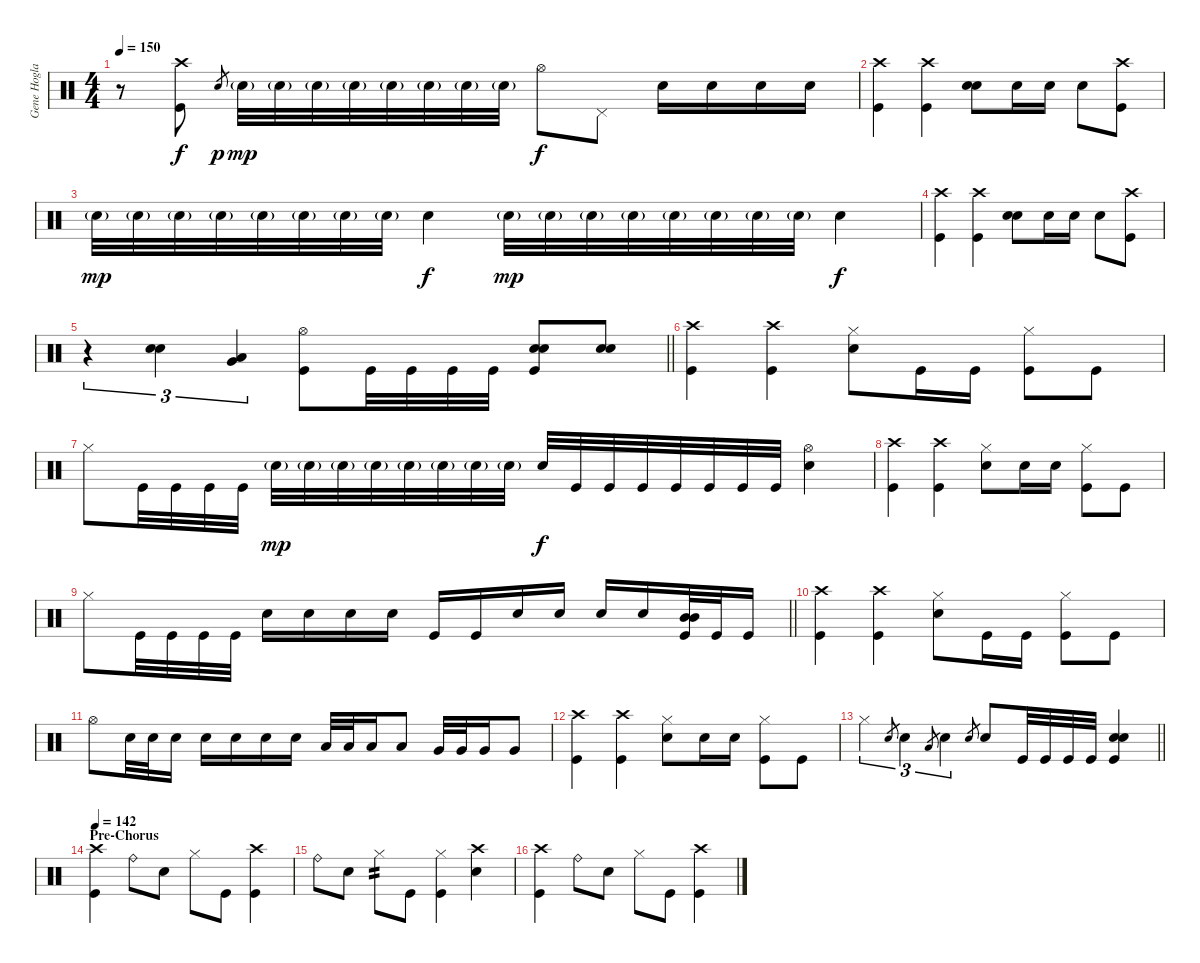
\track ("Gene Hoglan" "Gene Hogla") {instrument percussion}
\staff {score}
\articulation defaults
\ts (4 4)
\tempo 150
\clef neutral
\ks c
r.8{dy f} ("Kick (hit)" "Crash high (hit)").8 "Snare (hit) 2".8{gr dy p} "Snare (hit) 2"{g}.32{dy mp} "Snare (hit) 2"{g}.32 "Snare (hit) 2"{g}.32 "Snare (hit) 2"{g}.32 "Snare (hit) 2"{g}.32 "Snare (hit) 2"{g}.32 "Snare (hit) 2"{g}.32 "Snare (hit) 2"{g}.32 "Hi-Hat (open)".8{dy f} "Pedal Hi-Hat (hit)".8 "Snare (hit) 2".16 "Snare (hit) 2".16 "Snare (hit) 2".16 "Snare (hit) 2".16 |
("Kick (hit)" "Crash high (hit)").4 ("Kick (hit)" "Crash high (hit)").4 ("Snare (hit) 2" "Snare (hit) 2").8 "Snare (hit) 2".16 "Snare (hit) 2".16 "Snare (hit) 2".8 ("Kick (hit)" "Crash high (hit)").8 |
"Snare (hit) 2"{g}.32{dy mp} "Snare (hit) 2"{g}.32 "Snare (hit) 2"{g}.32 "Snare (hit) 2"{g}.32 "Snare (hit) 2"{g}.32 "Snare (hit) 2"{g}.32 "Snare (hit) 2"{g}.32 "Snare (hit) 2"{g}.32 "Snare (hit) 2".4{dy f} "Snare (hit) 2"{g}.32{dy mp} "Snare (hit) 2"{g}.32 "Snare (hit) 2"{g}.32 "Snare (hit) 2"{g}.32 "Snare (hit) 2"{g}.32 "Snare (hit) 2"{g}.32 "Snare (hit) 2"{g}.32 "Snare (hit) 2"{g}.32 "Snare (hit) 2".4{dy f} |
("Kick (hit)" "Crash high (hit)").4 ("Kick (hit)" "Crash high (hit)").4 ("Snare (hit) 2" "Snare (hit) 2").8 "Snare (hit) 2".16 "Snare (hit) 2".16 "Snare (hit) 2".8 ("Kick (hit)" "Crash high (hit)").8 |
\barLineRight lightlight
r.4{tu (3 2)} ("Snare (hit) 2" "Snare (hit) 2").4{tu (3 2)} ("Very Low Tom (hit)" "Low Tom (hit)").4{tu (3 2)} ("Kick (hit)" "Hi-Hat (open)").8 "Kick (hit)".32 "Kick (hit)".32 "Kick (hit)".32 "Kick (hit)".32 ("Snare (hit) 2" "Snare (hit) 2" "Kick (hit)").8 ("Snare (hit) 2" "Snare (hit) 2").8 |
("Kick (hit)" "Crash high (hit)").4 ("Kick (hit)" "Crash high (hit)").4 ("Snare (hit) 2" "Hi-Hat (closed)").8 "Kick (hit)".16 "Kick (hit)".16 ("Hi-Hat (closed)" "Kick (hit)").8 "Kick (hit)".8 |
"Hi-Hat (closed)".8 "Kick (hit)".32 "Kick (hit)".32 "Kick (hit)".32 "Kick (hit)".32 "Snare (hit) 2"{g}.32{dy mp} "Snare (hit) 2"{g}.32 "Snare (hit) 2"{g}.32 "Snare (hit) 2"{g}.32 "Snare (hit) 2"{g}.32 "Snare (hit) 2"{g}.32 "Snare (hit) 2"{g}.32 "Snare (hit) 2"{g}.32 "Snare (hit) 2".32{dy f} "Kick (hit)".32 "Kick (hit)".32 "Kick (hit)".32 "Kick (hit)".32 "Kick (hit)".32 "Kick (hit)".32 "Kick (hit)".32 ("Hi-Hat (open)" "Snare (hit) 2").4 |
("Kick (hit)" "Crash high (hit)").4 ("Kick (hit)" "Crash high (hit)").4 ("Snare (hit) 2" "Hi-Hat (closed)").8 "Snare (hit) 2".16 "Snare (hit) 2".16 ("Hi-Hat (closed)" "Kick (hit)").8 "Kick (hit)".8 |
\barLineRight lightlight "Hi-Hat (closed)".8 "Kick (hit)".32 "Kick (hit)".32 "Kick (hit)".32 "Kick (hit)".32 "Snare (hit) 2".16 "Snare (hit) 2".16 "Snare (hit) 2".16 "Snare (hit) 2".16 "Kick (hit)".16 "Kick (hit)".16 "Snare (hit) 2".16 "Snare (hit) 2".16 "Snare (hit) 2".16 "Snare (hit) 2".16
("Kick (hit)" "Mid Tom (hit)" "Mid Tom (hit)").32 "Kick (hit)".32 "Kick (hit)".16 |
("Kick (hit)" "Crash high (hit)").4 ("Kick (hit)" "Crash high (hit)").4 ("Snare (hit) 2" "Hi-Hat (closed)").8 "Kick (hit)".16 "Kick (hit)".16 ("Hi-Hat (closed)" "Kick (hit)").8 "Kick (hit)".8 |
"Hi-Hat (open)".8 "Snare (hit) 2".32 "Snare (hit) 2".32 "Snare (hit) 2".16 "Snare (hit) 2".16 "Snare (hit) 2".16 "Snare (hit) 2".16 "Snare (hit) 2".16 "Low Tom (hit)".32 "Low Tom (hit)".32 "Low Tom (hit)".16 "Low Tom (hit)".8 "Very Low Tom (hit)".32 "Very Low Tom (hit)".32 "Very Low Tom (hit)".16 "Very Low Tom (hit)".8 |
("Kick (hit)" "Crash high (hit)").4 ("Kick (hit)" "Crash high (hit)").4 ("Snare (hit) 2" "Hi-Hat (closed)").8 "Snare (hit) 2".16 "Snare (hit) 2".16 ("Hi-Hat (closed)" "Kick (hit)").8 "Kick (hit)".8 |
\barLineRight lightlight "Hi-Hat (closed)".4{tu (3 2)} "Snare (hit) 2".8{gr} "Snare (hit) 2".4{tu (3 2)} "Low Tom (hit)".8{gr} "Snare (hit) 2".4{tu (3 2)} "Snare (hit) 2".8{gr} "Snare (hit) 2".8 "Kick (hit)".32 "Kick (hit)".32 "Kick (hit)".32 "Kick (hit)".32
("Snare (hit) 2" "Snare (hit) 2" "Kick (hit)").4 |
\section ("" "Pre-Chorus")
\tempo 142
("Kick (hit)" "Crash high (hit)").4 "Ride (bell)".8 "Snare (hit) 2".8 "Hi-Hat (closed)".8 "Kick (hit)".8 ("Kick (hit)" "Crash high (hit)").4 |
"Ride (bell)".8 "Snare (hit) 2".8 "Hi-Hat (closed)".8{tp 2} "Kick (hit)".8 ("Hi-Hat (closed)" "Kick (hit)").4 ("Snare (hit) 2" "Crash high (hit)").4 |
("Kick (hit)" "Crash high (hit)").4 "Ride (bell)".8 "Snare (hit) 2".8 "Hi-Hat (closed)".8 "Kick (hit)".8 ("Kick (hit)" "Crash high (hit)").4
